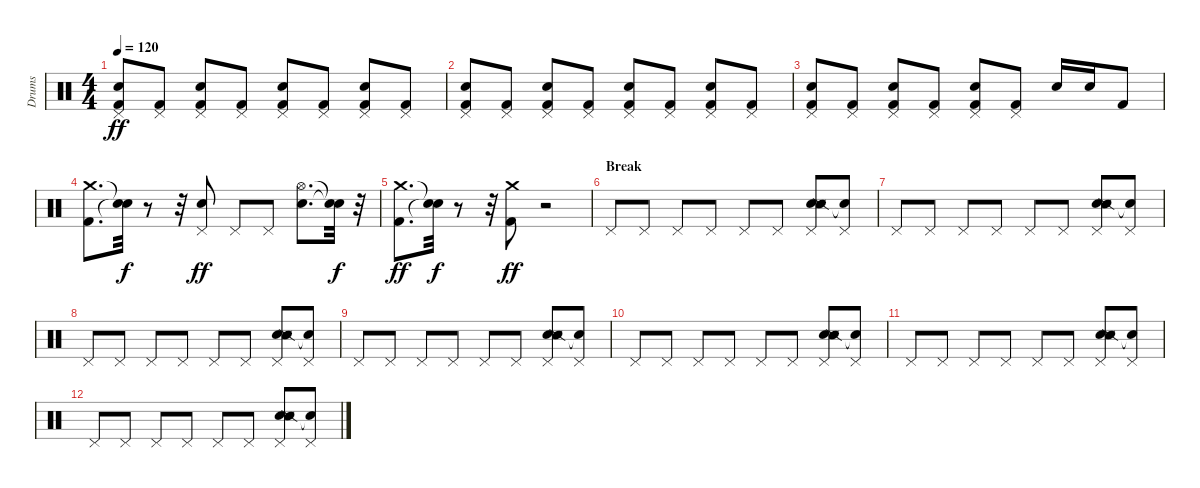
\track ("Drums" "Drums") {instrument percussion}
\staff {score}
\articulation defaults
\ts (4 4)
\tempo 120
\clef neutral
\ks c
("Pedal Hi-Hat (hit)" "Snare (hit) 2" "Kick (hit) 2").8{dy ff} ("Pedal Hi-Hat (hit)" "Kick (hit) 2").8 ("Pedal Hi-Hat (hit)" "Snare (hit) 2" "Kick (hit) 2").8 ("Pedal Hi-Hat (hit)" "Kick (hit) 2").8 ("Pedal Hi-Hat (hit)" "Snare (hit) 2" "Kick (hit) 2").8 ("Pedal Hi-Hat (hit)" "Kick (hit) 2").8 ("Pedal Hi-Hat (hit)" "Snare (hit) 2" "Kick (hit) 2").8 ("Pedal Hi-Hat (hit)" "Kick (hit) 2").8 |
("Pedal Hi-Hat (hit)" "Snare (hit) 2" "Kick (hit) 2").8 ("Pedal Hi-Hat (hit)" "Kick (hit) 2").8 ("Pedal Hi-Hat (hit)" "Snare (hit) 2" "Kick (hit) 2").8 ("Pedal Hi-Hat (hit)" "Kick (hit) 2").8 ("Pedal Hi-Hat (hit)" "Snare (hit) 2" "Kick (hit) 2").8 ("Pedal Hi-Hat (hit)" "Kick (hit) 2").8 ("Pedal Hi-Hat (hit)" "Snare (hit) 2" "Kick (hit) 2").8 ("Pedal Hi-Hat (hit)" "Kick (hit) 2").8 |
("Pedal Hi-Hat (hit)" "Snare (hit) 2" "Kick (hit) 2").8 ("Pedal Hi-Hat (hit)" "Kick (hit) 2").8 ("Pedal Hi-Hat (hit)" "Snare (hit) 2" "Kick (hit) 2").8 ("Pedal Hi-Hat (hit)" "Kick (hit) 2").8 ("Pedal Hi-Hat (hit)" "Snare (hit) 2" "Kick (hit) 2").8 ("Pedal Hi-Hat (hit)" "Kick (hit) 2").8 "Snare (hit) 2".16 "Snare (hit) 2".16 "Kick (hit) 2".8 |
("Crash medium (hit)" "Kick (hit) 2").8{d} ("Snare (hit)"{t} "Snare (hit)"{t}).32{dy f} r.8 r.32 ("Pedal Hi-Hat (hit)" "Snare (hit) 2").8{dy ff} "Pedal Hi-Hat (hit)".8 "Pedal Hi-Hat (hit)".8 ("Hi-Hat (open)" "Snare (hit) 2").8{d} ("Snare (hit)"{t} "Snare (hit)"{t}).32{dy f} r.32 |
("Crash medium (hit)" "Kick (hit) 2").8{d dy ff} ("Snare (hit)"{t} "Snare (hit)"{t}).32{dy f} r.8 r.32 ("Crash medium (hit)" "Kick (hit) 2").8{dy ff} r.2 |
\section ("" "Break")
"Pedal Hi-Hat (hit)".8 "Pedal Hi-Hat (hit)".8 "Pedal Hi-Hat (hit)".8 "Pedal Hi-Hat (hit)".8 "Pedal Hi-Hat (hit)".8 "Pedal Hi-Hat (hit)".8 ("Pedal Hi-Hat (hit)" "Hand Clap (hit)" "Snare (side stick) 2" "Metronome (hit)").8 ("Pedal Hi-Hat (hit)" "Snare (hit)"{t}).8 |
"Pedal Hi-Hat (hit)".8 "Pedal Hi-Hat (hit)".8 "Pedal Hi-Hat (hit)".8 "Pedal Hi-Hat (hit)".8 "Pedal Hi-Hat (hit)".8 "Pedal Hi-Hat (hit)".8 ("Pedal Hi-Hat (hit)" "Hand Clap (hit)" "Snare (side stick) 2" "Metronome (hit)").8 ("Pedal Hi-Hat (hit)" "Snare (hit)"{t}).8 |
"Pedal Hi-Hat (hit)".8 "Pedal Hi-Hat (hit)".8 "Pedal Hi-Hat (hit)".8 "Pedal Hi-Hat (hit)".8 "Pedal Hi-Hat (hit)".8 "Pedal Hi-Hat (hit)".8 ("Pedal Hi-Hat (hit)" "Hand Clap (hit)" "Snare (side stick) 2" "Metronome (hit)").8 ("Pedal Hi-Hat (hit)" "Snare (hit)"{t}).8 |
"Pedal Hi-Hat (hit)".8 "Pedal Hi-Hat (hit)".8 "Pedal Hi-Hat (hit)".8 "Pedal Hi-Hat (hit)".8 "Pedal Hi-Hat (hit)".8 "Pedal Hi-Hat (hit)".8 ("Pedal Hi-Hat (hit)" "Hand Clap (hit)" "Snare (side stick) 2" "Metronome (hit)").8 ("Pedal Hi-Hat (hit)" "Snare (hit)"{t}).8 |
"Pedal Hi-Hat (hit)".8 "Pedal Hi-Hat (hit)".8 "Pedal Hi-Hat (hit)".8 "Pedal Hi-Hat (hit)".8 "Pedal Hi-Hat (hit)".8 "Pedal Hi-Hat (hit)".8 ("Pedal Hi-Hat (hit)" "Hand Clap (hit)" "Snare (side stick) 2" "Metronome (hit)").8 ("Pedal Hi-Hat (hit)" "Snare (hit)"{t}).8 |
"Pedal Hi-Hat (hit)".8 "Pedal Hi-Hat (hit)".8 "Pedal Hi-Hat (hit)".8 "Pedal Hi-Hat (hit)".8 "Pedal Hi-Hat (hit)".8 "Pedal Hi-Hat (hit)".8 ("Pedal Hi-Hat (hit)" "Hand Clap (hit)" "Snare (side stick) 2" "Metronome (hit)").8 ("Pedal Hi-Hat (hit)" "Snare (hit)"{t}).8 |
"Pedal Hi-Hat (hit)".8 "Pedal Hi-Hat (hit)".8 "Pedal Hi-Hat (hit)".8 "Pedal Hi-Hat (hit)".8 "Pedal Hi-Hat (hit)".8 "Pedal Hi-Hat (hit)".8 ("Pedal Hi-Hat (hit)" "Hand Clap (hit)" "Snare (side stick) 2" "Metronome (hit)").8 ("Pedal Hi-Hat (hit)" "Snare (hit)"{t}).8
